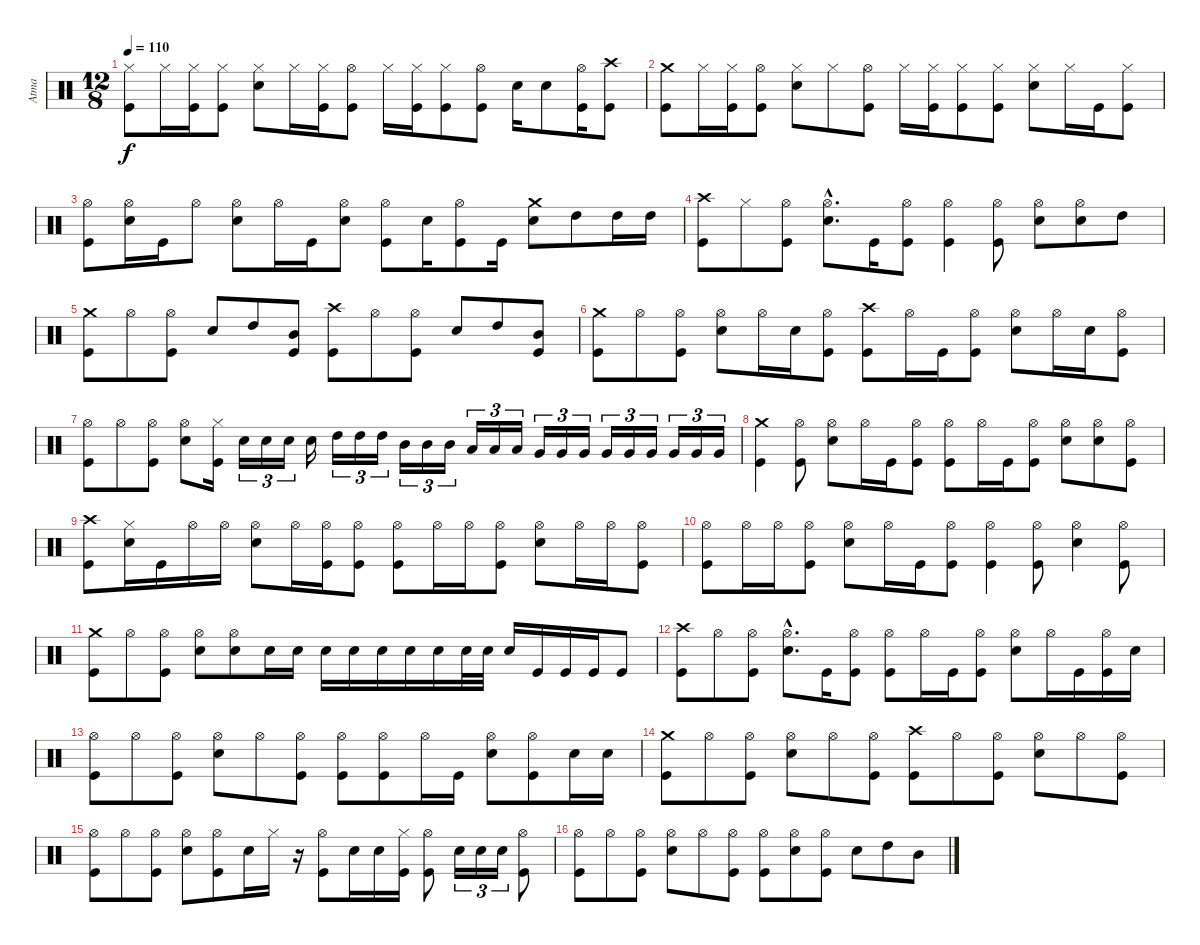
\track ("Atma" "Atma") {instrument percussion}
\staff {score}
\articulation defaults
\ts (12 8)
\tempo 110
\clef neutral
\ks c
("Kick (hit)" "Hi-Hat (closed)").8{dy f} "Hi-Hat (closed)".16 ("Kick (hit)" "Hi-Hat (closed)").16 ("Kick (hit)" "Hi-Hat (closed)").8 ("Snare (hit) 2" "Hi-Hat (closed)").8 "Hi-Hat (closed)".16 ("Kick (hit)" "Hi-Hat (closed)").16 ("Kick (hit)" "Hi-Hat (open)").8 "Hi-Hat (closed)".16 ("Kick (hit)" "Hi-Hat (closed)").16 ("Kick (hit)" "Hi-Hat (closed)").8 ("Kick (hit)" "Hi-Hat (open)").8 "Snare (hit) 2".16 "Snare (hit) 2".8 ("Kick (hit)" "Hi-Hat (open)").16 ("Kick (hit)" "Crash high (hit)").8 |
("Kick (hit)" "Crash medium (hit)").8 "Hi-Hat (closed)".16 ("Kick (hit)" "Hi-Hat (closed)").16 ("Kick (hit)" "Hi-Hat (open)").8 ("Snare (hit) 2" "Hi-Hat (closed)").8 "Hi-Hat (closed)".8 ("Kick (hit)" "Hi-Hat (open)").8 "Hi-Hat (closed)".16 ("Kick (hit)" "Hi-Hat (closed)").16 ("Kick (hit)" "Hi-Hat (closed)").8 ("Kick (hit)" "Hi-Hat (closed)").8 ("Snare (hit) 2" "Hi-Hat (closed)").8 "Hi-Hat (closed)".16 "Kick (hit)".16 ("Kick (hit)" "Hi-Hat (closed)").8 |
("Kick (hit)" "Hi-Hat (open)").8 ("Snare (hit) 2" "Hi-Hat (open)").16 "Kick (hit)".16 "Hi-Hat (open)".8 ("Snare (hit) 2" "Hi-Hat (open)").8 "Hi-Hat (open)".16 "Kick (hit)".16 ("Snare (hit) 2" "Hi-Hat (open)").8 ("Kick (hit)" "Hi-Hat (open)").8 "Snare (hit) 2".16 ("Kick (hit)" "Hi-Hat (open)").8 "Kick (hit)".16 ("Snare (hit) 2" "Crash medium (hit)").8 "High Tom (hit)".8 "High Tom (hit)".16 "High Tom (hit)".16 |
("Kick (hit)" "Crash high (hit)").8 "Hi-Hat (closed)".8 ("Kick (hit)" "Hi-Hat (open)").8 ("Snare (hit) 2"{hac} "Hi-Hat (open)"{hac}).8{d} "Kick (hit)".16 ("Kick (hit)" "Hi-Hat (open)").8 ("Kick (hit)" "Hi-Hat (open)").4 ("Kick (hit)" "Hi-Hat (open)").8 ("Snare (hit) 2" "Hi-Hat (open)").8 ("Snare (hit) 2" "Hi-Hat (open)").8 "High Tom (hit)".8 |
("Kick (hit)" "Crash medium (hit)").8 "Hi-Hat (open)".8 ("Kick (hit)" "Hi-Hat (open)").8 "Snare (hit) 2".8 "High Tom (hit)".8 ("Kick (hit)" "Mid Tom (hit)").8 ("Kick (hit)" "Crash high (hit)").8 "Hi-Hat (open)".8 ("Kick (hit)" "Hi-Hat (open)").8 "Snare (hit) 2".8 "High Tom (hit)".8 ("Kick (hit)" "Mid Tom (hit)").8 |
("Kick (hit)" "Crash medium (hit)").8 "Hi-Hat (open)".8 ("Kick (hit)" "Hi-Hat (open)").8 ("Snare (hit) 2" "Hi-Hat (open)").8 "Hi-Hat (open)".16 "Snare (hit) 2".16 ("Kick (hit)" "Hi-Hat (open)").8 ("Kick (hit)" "Crash high (hit)").8 "Hi-Hat (open)".16 "Kick (hit)".16 ("Kick (hit)" "Hi-Hat (open)").8 ("Snare (hit) 2" "Hi-Hat (open)").8 "Hi-Hat (open)".16 "Snare (hit) 2".16 ("Kick (hit)" "Hi-Hat (open)").8 |
("Kick (hit)" "Hi-Hat (open)").8 "Hi-Hat (open)".8 ("Kick (hit)" "Hi-Hat (open)").8 ("Snare (hit) 2" "Hi-Hat (open)").8 ("Kick (hit)" "Hi-Hat (closed)").16 "Snare (hit) 2".16{tu (3 2)} "Snare (hit) 2".16{tu (3 2)} "Snare (hit) 2".16{tu (3 2)} "Snare (hit) 2".16 "High Tom (hit)".16{tu (3 2)} "High Tom (hit)".16{tu (3 2)} "High Tom (hit)".16{tu (3 2)} "Mid Tom (hit)".16{tu (3 2)} "Mid Tom (hit)".16{tu (3 2)} "Mid Tom (hit)".16{tu (3 2)} "Low Tom (hit)".16{tu (3 2)} "Low Tom (hit)".16{tu (3 2)} "Low Tom (hit)".16{tu (3 2)} "Very Low Tom (hit)".16{tu (3 2)} "Very Low Tom (hit)".16{tu (3 2)} "Very Low Tom (hit)".16{tu (3 2)} "Very Low Tom (hit)".16{tu (3 2)} "Very Low Tom (hit)".16{tu (3 2)} "Very Low Tom (hit)".16{tu (3 2)} "Very Low Tom (hit)".16{tu (3 2)} "Very Low Tom (hit)".16{tu (3 2)} "Very Low Tom (hit)".16{tu (3 2)} |
("Kick (hit)" "Crash medium (hit)").4 ("Kick (hit)" "Hi-Hat (open)").8 ("Snare (hit) 2" "Hi-Hat (open)").8 "Hi-Hat (open)".16 "Kick (hit)".16 ("Kick (hit)" "Hi-Hat (open)").8 ("Kick (hit)" "Hi-Hat (open)").8 "Hi-Hat (open)".16 "Kick (hit)".16 ("Kick (hit)" "Hi-Hat (open)").8 ("Snare (hit) 2" "Hi-Hat (open)").8 ("Snare (hit) 2" "Hi-Hat (open)").8 ("Kick (hit)" "Hi-Hat (open)").8 |
("Kick (hit)" "Crash high (hit)").8 ("Snare (hit) 2" "Hi-Hat (closed)").16 "Kick (hit)".16 "Hi-Hat (open)".16 "Hi-Hat (open)".16 ("Snare (hit) 2" "Hi-Hat (open)").8 "Hi-Hat (open)".16 ("Kick (hit)" "Hi-Hat (open)").16 ("Kick (hit)" "Hi-Hat (open)").8 ("Kick (hit)" "Hi-Hat (open)").8 "Hi-Hat (open)".16 "Hi-Hat (open)".16 ("Kick (hit)" "Hi-Hat (open)").8 ("Snare (hit) 2" "Hi-Hat (open)").8 "Hi-Hat (open)".16 "Hi-Hat (open)".16 ("Kick (hit)" "Hi-Hat (open)").8 |
("Kick (hit)" "Hi-Hat (open)").8 "Hi-Hat (open)".16 "Hi-Hat (open)".16 ("Kick (hit)" "Hi-Hat (open)").8 ("Snare (hit) 2" "Hi-Hat (open)").8 "Hi-Hat (open)".16 "Kick (hit)".16 ("Kick (hit)" "Hi-Hat (open)").8 ("Kick (hit)" "Hi-Hat (open)").4 ("Kick (hit)" "Hi-Hat (open)").8 ("Snare (hit) 2" "Hi-Hat (open)").4 ("Kick (hit)" "Hi-Hat (open)").8 |
("Kick (hit)" "Crash medium (hit)").8 "Hi-Hat (open)".8 ("Kick (hit)" "Hi-Hat (open)").8 ("Snare (hit) 2" "Hi-Hat (open)").8 ("Snare (hit) 2" "Hi-Hat (open)").8 "Snare (hit) 2".16 "Snare (hit) 2".16 "Snare (hit) 2".16 "Snare (hit) 2".16 "Snare (hit) 2".16 "Snare (hit) 2".16 "Snare (hit) 2".16 "Snare (hit) 2".32 "Snare (hit) 2".32 "Snare (hit) 2".16 "Kick (hit)".16 "Kick (hit)".16 "Kick (hit)".16 "Kick (hit)".8 |
("Kick (hit)" "Crash high (hit)").8 "Hi-Hat (open)".8 ("Kick (hit)" "Hi-Hat (open)").8 ("Snare (hit) 2"{hac} "Hi-Hat (open)"{hac}).8{d} "Kick (hit)".16 ("Kick (hit)" "Hi-Hat (open)").8 ("Kick (hit)" "Hi-Hat (open)").8 "Hi-Hat (open)".16 "Kick (hit)".16 ("Kick (hit)" "Hi-Hat (open)").8 ("Snare (hit) 2" "Hi-Hat (open)").8 "Hi-Hat (open)".16 "Kick (hit)".16 ("Kick (hit)" "Hi-Hat (open)").16 "Snare (hit) 2".16 |
("Kick (hit)" "Hi-Hat (open)").8 "Hi-Hat (open)".8 ("Kick (hit)" "Hi-Hat (open)").8 ("Snare (hit) 2" "Hi-Hat (open)").8 "Hi-Hat (open)".8 ("Kick (hit)" "Hi-Hat (open)").8 ("Kick (hit)" "Hi-Hat (open)").8 ("Kick (hit)" "Hi-Hat (open)").8 "Hi-Hat (open)".16 "Kick (hit)".16 ("Snare (hit) 2" "Hi-Hat (open)").8 ("Kick (hit)" "Hi-Hat (open)").8 "Snare (hit) 2".16 "Snare (hit) 2".16 |
("Kick (hit)" "Crash medium (hit)").8 "Hi-Hat (open)".8 ("Kick (hit)" "Hi-Hat (open)").8 ("Snare (hit) 2" "Hi-Hat (open)").8 "Hi-Hat (open)".8 ("Kick (hit)" "Hi-Hat (open)").8 ("Kick (hit)" "Crash high (hit)").8 "Hi-Hat (open)".8 ("Kick (hit)" "Hi-Hat (open)").8 ("Snare (hit) 2" "Hi-Hat (open)").8 "Hi-Hat (open)".8 ("Kick (hit)" "Hi-Hat (open)").8 |
("Kick (hit)" "Hi-Hat (open)").8 "Hi-Hat (open)".8 ("Kick (hit)" "Hi-Hat (open)").8 ("Snare (hit) 2" "Hi-Hat (open)").8 ("Kick (hit)" "Hi-Hat (open)").8 "Snare (hit) 2".16 "Hi-Hat (closed)".16 r.16 ("Kick (hit)" "Hi-Hat (open)").8 "Snare (hit) 2".16 "Snare (hit) 2".16 ("Kick (hit)" "Hi-Hat (closed)").16 ("Kick (hit)" "Hi-Hat (open)").8 "Snare (hit) 2".16{tu (3 2)} "Snare (hit) 2".16{tu (3 2)} "Snare (hit) 2".16{tu (3 2)} ("Kick (hit)" "Hi-Hat (open)").8 |
("Kick (hit)" "Hi-Hat (open)").8 "Hi-Hat (open)".8 ("Kick (hit)" "Hi-Hat (open)").8 ("Snare (hit) 2" "Hi-Hat (open)").8 "Hi-Hat (open)".8 ("Kick (hit)" "Hi-Hat (open)").8 ("Kick (hit)" "Hi-Hat (open)").8 ("Snare (hit) 2" "Hi-Hat (open)").8 ("Kick (hit)" "Hi-Hat (open)").8 "Snare (hit) 2".8 "High Tom (hit)".8 "Mid Tom (hit)".8
